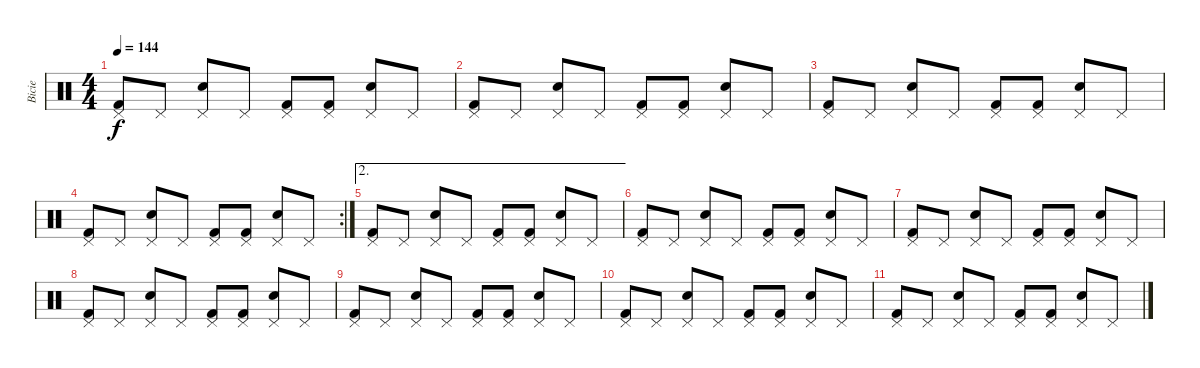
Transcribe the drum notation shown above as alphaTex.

\track ("Bicie" "Bicie") {instrument percussion}
\staff {score}
\articulation defaults
\ts (4 4)
\tempo 144
\clef neutral
\ks c
("Pedal Hi-Hat (hit)" "Kick (hit) 2").8{dy f} "Pedal Hi-Hat (hit)".8 ("Pedal Hi-Hat (hit)" "Snare (hit) 2").8 "Pedal Hi-Hat (hit)".8 ("Pedal Hi-Hat (hit)" "Kick (hit) 2").8 ("Pedal Hi-Hat (hit)" "Kick (hit) 2").8 ("Pedal Hi-Hat (hit)" "Snare (hit) 2").8 "Pedal Hi-Hat (hit)".8 |
("Pedal Hi-Hat (hit)" "Kick (hit) 2").8 "Pedal Hi-Hat (hit)".8 ("Pedal Hi-Hat (hit)" "Snare (hit) 2").8 "Pedal Hi-Hat (hit)".8 ("Pedal Hi-Hat (hit)" "Kick (hit) 2").8 ("Pedal Hi-Hat (hit)" "Kick (hit) 2").8 ("Pedal Hi-Hat (hit)" "Snare (hit) 2").8 "Pedal Hi-Hat (hit)".8 |
("Pedal Hi-Hat (hit)" "Kick (hit) 2").8 "Pedal Hi-Hat (hit)".8 ("Pedal Hi-Hat (hit)" "Snare (hit) 2").8 "Pedal Hi-Hat (hit)".8 ("Pedal Hi-Hat (hit)" "Kick (hit) 2").8 ("Pedal Hi-Hat (hit)" "Kick (hit) 2").8 ("Pedal Hi-Hat (hit)" "Snare (hit) 2").8 "Pedal Hi-Hat (hit)".8 |
\rc 2
("Pedal Hi-Hat (hit)" "Kick (hit) 2").8 "Pedal Hi-Hat (hit)".8 ("Pedal Hi-Hat (hit)" "Snare (hit) 2").8 "Pedal Hi-Hat (hit)".8 ("Pedal Hi-Hat (hit)" "Kick (hit) 2").8 ("Pedal Hi-Hat (hit)" "Kick (hit) 2").8 ("Pedal Hi-Hat (hit)" "Snare (hit) 2").8 "Pedal Hi-Hat (hit)".8 |
\ae 2
("Pedal Hi-Hat (hit)" "Kick (hit) 2").8 "Pedal Hi-Hat (hit)".8 ("Pedal Hi-Hat (hit)" "Snare (hit) 2").8 "Pedal Hi-Hat (hit)".8 ("Pedal Hi-Hat (hit)" "Kick (hit) 2").8 ("Pedal Hi-Hat (hit)" "Kick (hit) 2").8 ("Pedal Hi-Hat (hit)" "Snare (hit) 2").8 "Pedal Hi-Hat (hit)".8 |
("Pedal Hi-Hat (hit)" "Kick (hit) 2").8 "Pedal Hi-Hat (hit)".8 ("Pedal Hi-Hat (hit)" "Snare (hit) 2").8 "Pedal Hi-Hat (hit)".8 ("Pedal Hi-Hat (hit)" "Kick (hit) 2").8 ("Pedal Hi-Hat (hit)" "Kick (hit) 2").8 ("Pedal Hi-Hat (hit)" "Snare (hit) 2").8 "Pedal Hi-Hat (hit)".8 |
("Pedal Hi-Hat (hit)" "Kick (hit) 2").8 "Pedal Hi-Hat (hit)".8 ("Pedal Hi-Hat (hit)" "Snare (hit) 2").8 "Pedal Hi-Hat (hit)".8 ("Pedal Hi-Hat (hit)" "Kick (hit) 2").8 ("Pedal Hi-Hat (hit)" "Kick (hit) 2").8 ("Pedal Hi-Hat (hit)" "Snare (hit) 2").8 "Pedal Hi-Hat (hit)".8 |
("Pedal Hi-Hat (hit)" "Kick (hit) 2").8 "Pedal Hi-Hat (hit)".8 ("Pedal Hi-Hat (hit)" "Snare (hit) 2").8 "Pedal Hi-Hat (hit)".8 ("Pedal Hi-Hat (hit)" "Kick (hit) 2").8 ("Pedal Hi-Hat (hit)" "Kick (hit) 2").8 ("Pedal Hi-Hat (hit)" "Snare (hit) 2").8 "Pedal Hi-Hat (hit)".8 |
("Pedal Hi-Hat (hit)" "Kick (hit) 2").8 "Pedal Hi-Hat (hit)".8 ("Pedal Hi-Hat (hit)" "Snare (hit) 2").8 "Pedal Hi-Hat (hit)".8 ("Pedal Hi-Hat (hit)" "Kick (hit) 2").8 ("Pedal Hi-Hat (hit)" "Kick (hit) 2").8 ("Pedal Hi-Hat (hit)" "Snare (hit) 2").8 "Pedal Hi-Hat (hit)".8 |
("Pedal Hi-Hat (hit)" "Kick (hit) 2").8 "Pedal Hi-Hat (hit)".8 ("Pedal Hi-Hat (hit)" "Snare (hit) 2").8 "Pedal Hi-Hat (hit)".8 ("Pedal Hi-Hat (hit)" "Kick (hit) 2").8 ("Pedal Hi-Hat (hit)" "Kick (hit) 2").8 ("Pedal Hi-Hat (hit)" "Snare (hit) 2").8 "Pedal Hi-Hat (hit)".8 |
("Pedal Hi-Hat (hit)" "Kick (hit) 2").8 "Pedal Hi-Hat (hit)".8 ("Pedal Hi-Hat (hit)" "Snare (hit) 2").8 "Pedal Hi-Hat (hit)".8 ("Pedal Hi-Hat (hit)" "Kick (hit) 2").8 ("Pedal Hi-Hat (hit)" "Kick (hit) 2").8 ("Pedal Hi-Hat (hit)" "Snare (hit) 2").8 "Pedal Hi-Hat (hit)".8
